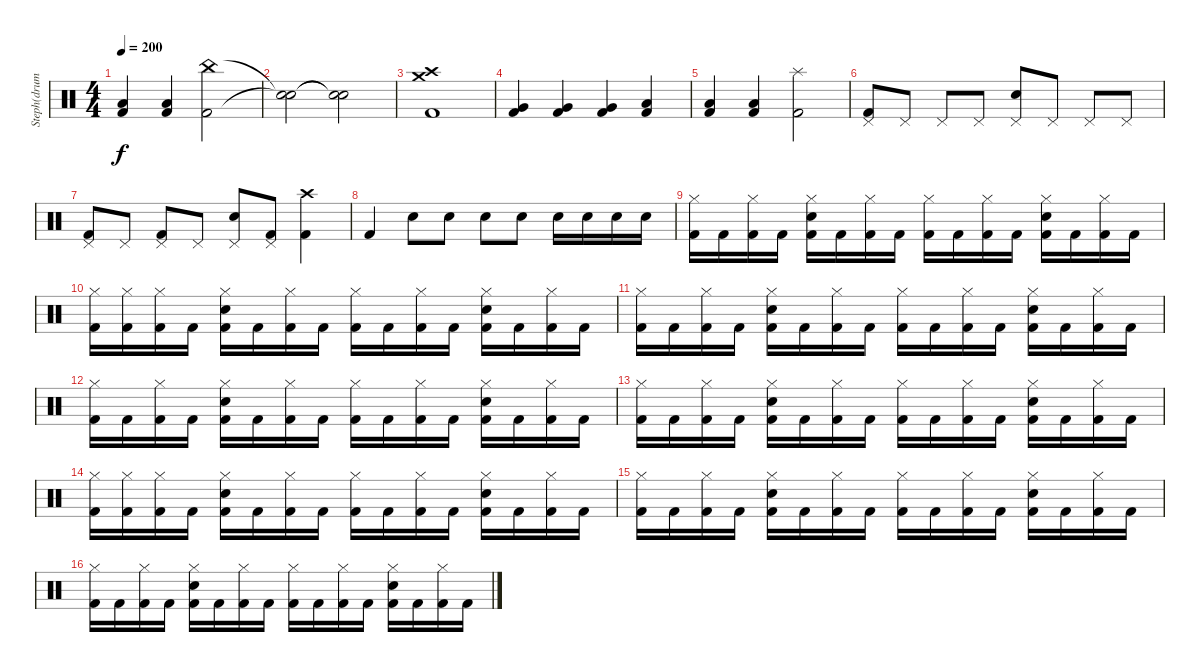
\track ("Steph(drums)" "Steph(drum") {instrument percussion}
\staff {score}
\articulation defaults
\ts (4 4)
\tempo 200
\clef neutral
\ks c
("Low Tom (hit)" "Kick (hit) 2").4{dy f} ("Low Tom (hit)" "Kick (hit) 2").4 ("China (hit)" "Kick (hit) 2").2 |
("Snare (hit)"{t} "Snare (hit)"{t}).2 ("Snare (hit)"{t} "Snare (hit)"{t}).2 |
("Crash high (hit)" "Crash medium (hit)" "Kick (hit) 2").1 |
("Very Low Tom (hit)" "Kick (hit) 2").4 ("Very Low Tom (hit)" "Kick (hit) 2").4 ("Very Low Tom (hit)" "Kick (hit) 2").4 ("Low Tom (hit)" "Kick (hit) 2").4 |
("Low Tom (hit)" "Kick (hit) 2").4 ("Low Tom (hit)" "Kick (hit) 2").4 ("Splash (hit)" "Kick (hit) 2").2 |
("Kick (hit) 2" "Pedal Hi-Hat (hit)").8 "Pedal Hi-Hat (hit)".8 "Pedal Hi-Hat (hit)".8 "Pedal Hi-Hat (hit)".8 ("Electric Snare (hit)" "Pedal Hi-Hat (hit)").8 "Pedal Hi-Hat (hit)".8 "Pedal Hi-Hat (hit)".8 "Pedal Hi-Hat (hit)".8 |
("Kick (hit) 2" "Pedal Hi-Hat (hit)").8 "Pedal Hi-Hat (hit)".8 ("Kick (hit) 2" "Pedal Hi-Hat (hit)").8 "Pedal Hi-Hat (hit)".8 ("Electric Snare (hit)" "Pedal Hi-Hat (hit)").8 ("Kick (hit) 2" "Pedal Hi-Hat (hit)").8 ("Kick (hit) 2" "Crash high (hit)").4 |
"Kick (hit) 2".4 "Electric Snare (hit)".8 "Electric Snare (hit)".8 "Electric Snare (hit)".8 "Electric Snare (hit)".8 "Electric Snare (hit)".16 "Electric Snare (hit)".16 "Electric Snare (hit)".16 "Electric Snare (hit)".16 |
("Hi-Hat (closed)" "Kick (hit) 2").16 "Kick (hit) 2".16 ("Hi-Hat (closed)" "Kick (hit) 2").16 "Kick (hit) 2".16 ("Hi-Hat (closed)" "Electric Snare (hit)" "Kick (hit) 2").16 "Kick (hit) 2".16 ("Hi-Hat (closed)" "Kick (hit) 2").16 "Kick (hit) 2".16 ("Hi-Hat (closed)" "Kick (hit) 2").16 "Kick (hit) 2".16 ("Hi-Hat (closed)" "Kick (hit) 2").16 "Kick (hit) 2".16 ("Hi-Hat (closed)" "Electric Snare (hit)" "Kick (hit) 2").16 "Kick (hit) 2".16 ("Hi-Hat (closed)" "Kick (hit) 2").16 "Kick (hit) 2".16 |
("Hi-Hat (closed)" "Kick (hit) 2").16 ("Hi-Hat (closed)" "Kick (hit) 2").16 ("Hi-Hat (closed)" "Kick (hit) 2").16 "Kick (hit) 2".16 ("Hi-Hat (closed)" "Electric Snare (hit)" "Kick (hit) 2").16 "Kick (hit) 2".16 ("Hi-Hat (closed)" "Kick (hit) 2").16 "Kick (hit) 2".16 ("Hi-Hat (closed)" "Kick (hit) 2").16 "Kick (hit) 2".16 ("Hi-Hat (closed)" "Kick (hit) 2").16 "Kick (hit) 2".16 ("Hi-Hat (closed)" "Electric Snare (hit)" "Kick (hit) 2").16 "Kick (hit) 2".16 ("Hi-Hat (closed)" "Kick (hit) 2").16 "Kick (hit) 2".16 |
("Hi-Hat (closed)" "Kick (hit) 2").16 "Kick (hit) 2".16 ("Hi-Hat (closed)" "Kick (hit) 2").16 "Kick (hit) 2".16 ("Hi-Hat (closed)" "Electric Snare (hit)" "Kick (hit) 2").16 "Kick (hit) 2".16 ("Hi-Hat (closed)" "Kick (hit) 2").16 "Kick (hit) 2".16 ("Hi-Hat (closed)" "Kick (hit) 2").16 "Kick (hit) 2".16 ("Hi-Hat (closed)" "Kick (hit) 2").16 "Kick (hit) 2".16 ("Hi-Hat (closed)" "Electric Snare (hit)" "Kick (hit) 2").16 "Kick (hit) 2".16 ("Hi-Hat (closed)" "Kick (hit) 2").16 "Kick (hit) 2".16 |
("Hi-Hat (closed)" "Kick (hit) 2").16 "Kick (hit) 2".16 ("Hi-Hat (closed)" "Kick (hit) 2").16 "Kick (hit) 2".16 ("Hi-Hat (closed)" "Electric Snare (hit)" "Kick (hit) 2").16 "Kick (hit) 2".16 ("Hi-Hat (closed)" "Kick (hit) 2").16 "Kick (hit) 2".16 ("Hi-Hat (closed)" "Kick (hit) 2").16 "Kick (hit) 2".16 ("Hi-Hat (closed)" "Kick (hit) 2").16 "Kick (hit) 2".16 ("Hi-Hat (closed)" "Electric Snare (hit)" "Kick (hit) 2").16 "Kick (hit) 2".16 ("Hi-Hat (closed)" "Kick (hit) 2").16 "Kick (hit) 2".16 |
("Hi-Hat (closed)" "Kick (hit) 2").16 "Kick (hit) 2".16 ("Hi-Hat (closed)" "Kick (hit) 2").16 "Kick (hit) 2".16 ("Hi-Hat (closed)" "Electric Snare (hit)" "Kick (hit) 2").16 "Kick (hit) 2".16 ("Hi-Hat (closed)" "Kick (hit) 2").16 "Kick (hit) 2".16 ("Hi-Hat (closed)" "Kick (hit) 2").16 "Kick (hit) 2".16 ("Hi-Hat (closed)" "Kick (hit) 2").16 "Kick (hit) 2".16 ("Hi-Hat (closed)" "Electric Snare (hit)" "Kick (hit) 2").16 "Kick (hit) 2".16 ("Hi-Hat (closed)" "Kick (hit) 2").16 "Kick (hit) 2".16 |
("Hi-Hat (closed)" "Kick (hit) 2").16 ("Hi-Hat (closed)" "Kick (hit) 2").16 ("Hi-Hat (closed)" "Kick (hit) 2").16 "Kick (hit) 2".16 ("Hi-Hat (closed)" "Electric Snare (hit)" "Kick (hit) 2").16 "Kick (hit) 2".16 ("Hi-Hat (closed)" "Kick (hit) 2").16 "Kick (hit) 2".16 ("Hi-Hat (closed)" "Kick (hit) 2").16 "Kick (hit) 2".16 ("Hi-Hat (closed)" "Kick (hit) 2").16 "Kick (hit) 2".16 ("Hi-Hat (closed)" "Electric Snare (hit)" "Kick (hit) 2").16 "Kick (hit) 2".16 ("Hi-Hat (closed)" "Kick (hit) 2").16 "Kick (hit) 2".16 |
("Hi-Hat (closed)" "Kick (hit) 2").16 "Kick (hit) 2".16 ("Hi-Hat (closed)" "Kick (hit) 2").16 "Kick (hit) 2".16 ("Hi-Hat (closed)" "Electric Snare (hit)" "Kick (hit) 2").16 "Kick (hit) 2".16 ("Hi-Hat (closed)" "Kick (hit) 2").16 "Kick (hit) 2".16 ("Hi-Hat (closed)" "Kick (hit) 2").16 "Kick (hit) 2".16 ("Hi-Hat (closed)" "Kick (hit) 2").16 "Kick (hit) 2".16 ("Hi-Hat (closed)" "Electric Snare (hit)" "Kick (hit) 2").16 "Kick (hit) 2".16 ("Hi-Hat (closed)" "Kick (hit) 2").16 "Kick (hit) 2".16 |
("Hi-Hat (closed)" "Kick (hit) 2").16 "Kick (hit) 2".16 ("Hi-Hat (closed)" "Kick (hit) 2").16 "Kick (hit) 2".16 ("Hi-Hat (closed)" "Electric Snare (hit)" "Kick (hit) 2").16 "Kick (hit) 2".16 ("Hi-Hat (closed)" "Kick (hit) 2").16 "Kick (hit) 2".16 ("Hi-Hat (closed)" "Kick (hit) 2").16 "Kick (hit) 2".16 ("Hi-Hat (closed)" "Kick (hit) 2").16 "Kick (hit) 2".16 ("Hi-Hat (closed)" "Electric Snare (hit)" "Kick (hit) 2").16 "Kick (hit) 2".16 ("Hi-Hat (closed)" "Kick (hit) 2").16 "Kick (hit) 2".16
